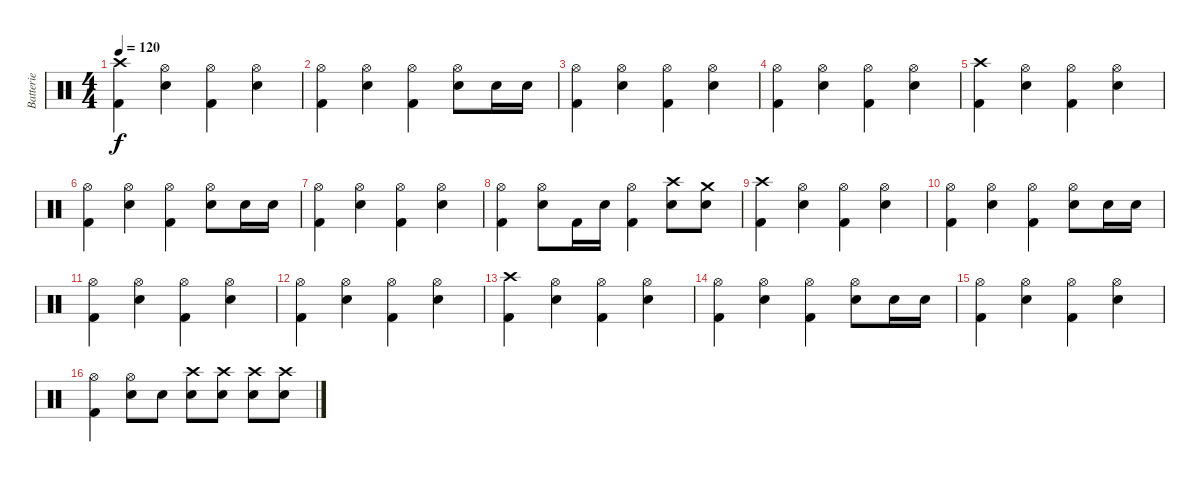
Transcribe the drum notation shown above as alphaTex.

\track ("Batterie" "Batterie") {instrument percussion}
\staff {score}
\articulation defaults
\ts (4 4)
\tempo 120
\clef neutral
\ks c
("Crash high (hit)" "Kick (hit) 2").4{dy f} ("Hi-Hat (open)" "Electric Snare (hit)").4 ("Hi-Hat (open)" "Kick (hit) 2").4 ("Hi-Hat (open)" "Electric Snare (hit)").4 |
("Hi-Hat (open)" "Kick (hit) 2").4 ("Hi-Hat (open)" "Electric Snare (hit)").4 ("Hi-Hat (open)" "Kick (hit) 2").4 ("Hi-Hat (open)" "Electric Snare (hit)").8 "Electric Snare (hit)".16 "Electric Snare (hit)".16 |
("Hi-Hat (open)" "Kick (hit) 2").4 ("Hi-Hat (open)" "Electric Snare (hit)").4 ("Hi-Hat (open)" "Kick (hit) 2").4 ("Hi-Hat (open)" "Electric Snare (hit)").4 |
("Hi-Hat (open)" "Kick (hit) 2").4 ("Hi-Hat (open)" "Electric Snare (hit)").4 ("Hi-Hat (open)" "Kick (hit) 2").4 ("Hi-Hat (open)" "Electric Snare (hit)").4 |
("Crash high (hit)" "Kick (hit) 2").4 ("Hi-Hat (open)" "Electric Snare (hit)").4 ("Hi-Hat (open)" "Kick (hit) 2").4 ("Hi-Hat (open)" "Electric Snare (hit)").4 |
("Hi-Hat (open)" "Kick (hit) 2").4 ("Hi-Hat (open)" "Electric Snare (hit)").4 ("Hi-Hat (open)" "Kick (hit) 2").4 ("Hi-Hat (open)" "Electric Snare (hit)").8 "Electric Snare (hit)".16 "Electric Snare (hit)".16 |
("Hi-Hat (open)" "Kick (hit) 2").4 ("Hi-Hat (open)" "Electric Snare (hit)").4 ("Hi-Hat (open)" "Kick (hit) 2").4 ("Hi-Hat (open)" "Electric Snare (hit)").4 |
("Hi-Hat (open)" "Kick (hit) 2").4 ("Hi-Hat (open)" "Electric Snare (hit)").8 "Kick (hit) 2".16 "Electric Snare (hit)".16 ("Hi-Hat (open)" "Kick (hit) 2").4 ("Crash high (hit)" "Electric Snare (hit)").8 ("Crash medium (hit)" "Electric Snare (hit)").8 |
("Crash high (hit)" "Kick (hit) 2").4 ("Hi-Hat (open)" "Electric Snare (hit)").4 ("Hi-Hat (open)" "Kick (hit) 2").4 ("Hi-Hat (open)" "Electric Snare (hit)").4 |
("Hi-Hat (open)" "Kick (hit) 2").4 ("Hi-Hat (open)" "Electric Snare (hit)").4 ("Hi-Hat (open)" "Kick (hit) 2").4 ("Hi-Hat (open)" "Electric Snare (hit)").8 "Electric Snare (hit)".16 "Electric Snare (hit)".16 |
("Hi-Hat (open)" "Kick (hit) 2").4 ("Hi-Hat (open)" "Electric Snare (hit)").4 ("Hi-Hat (open)" "Kick (hit) 2").4 ("Hi-Hat (open)" "Electric Snare (hit)").4 |
("Hi-Hat (open)" "Kick (hit) 2").4 ("Hi-Hat (open)" "Electric Snare (hit)").4 ("Hi-Hat (open)" "Kick (hit) 2").4 ("Hi-Hat (open)" "Electric Snare (hit)").4 |
("Crash high (hit)" "Kick (hit) 2").4 ("Hi-Hat (open)" "Electric Snare (hit)").4 ("Hi-Hat (open)" "Kick (hit) 2").4 ("Hi-Hat (open)" "Electric Snare (hit)").4 |
("Hi-Hat (open)" "Kick (hit) 2").4 ("Hi-Hat (open)" "Electric Snare (hit)").4 ("Hi-Hat (open)" "Kick (hit) 2").4 ("Hi-Hat (open)" "Electric Snare (hit)").8 "Electric Snare (hit)".16 "Electric Snare (hit)".16 |
("Hi-Hat (open)" "Kick (hit) 2").4 ("Hi-Hat (open)" "Electric Snare (hit)").4 ("Hi-Hat (open)" "Kick (hit) 2").4 ("Hi-Hat (open)" "Electric Snare (hit)").4 |
("Hi-Hat (open)" "Kick (hit) 2").4 ("Hi-Hat (open)" "Electric Snare (hit)").8 "Electric Snare (hit)".8 ("Crash high (hit)" "Electric Snare (hit)").8 ("Crash high (hit)" "Electric Snare (hit)").8 ("Crash high (hit)" "Electric Snare (hit)").8 ("Crash high (hit)" "Electric Snare (hit)").8
